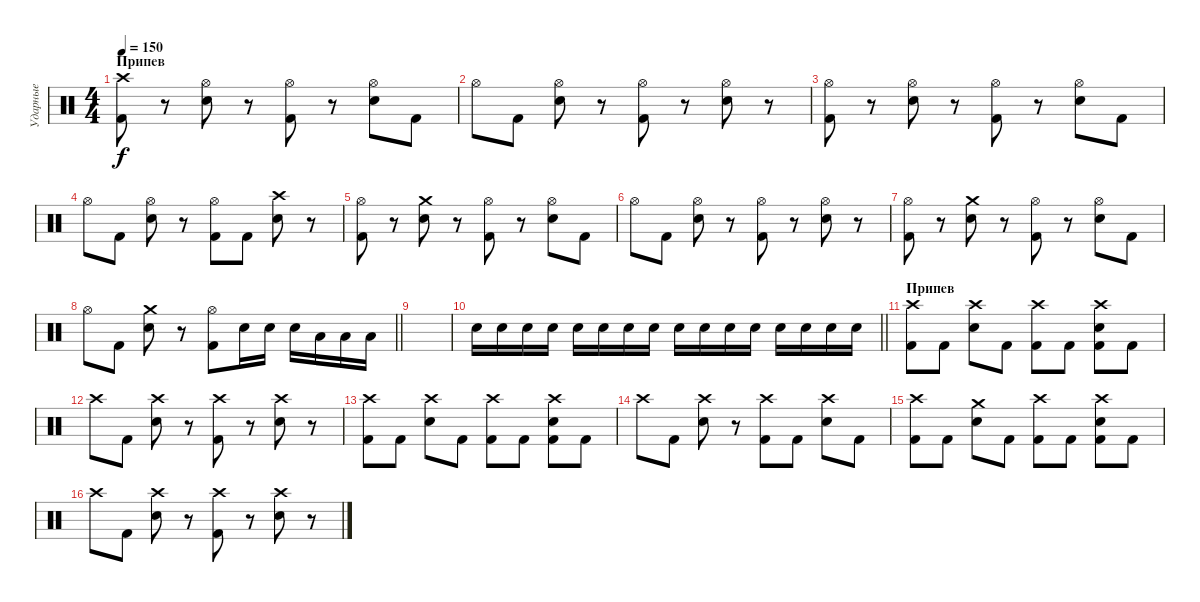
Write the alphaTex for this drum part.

\track ("Ударные" "Ударные") {instrument percussion}
\staff {score}
\articulation defaults
\ts (4 4)
\section ("" "Припев")
\tempo 150
\clef neutral
\ks c
("Crash high (hit)" "Kick (hit) 2").8{dy f} r.8 ("Hi-Hat (open)" "Snare (hit) 2").8 r.8 ("Hi-Hat (open)" "Kick (hit) 2").8 r.8 ("Hi-Hat (open)" "Snare (hit) 2").8 "Kick (hit) 2".8 |
"Hi-Hat (open)".8 "Kick (hit) 2".8 ("Hi-Hat (open)" "Snare (hit) 2").8 r.8 ("Hi-Hat (open)" "Kick (hit) 2").8 r.8 ("Hi-Hat (open)" "Snare (hit) 2").8 r.8 |
("Hi-Hat (open)" "Kick (hit) 2").8 r.8 ("Hi-Hat (open)" "Snare (hit) 2").8 r.8 ("Hi-Hat (open)" "Kick (hit) 2").8 r.8 ("Hi-Hat (open)" "Snare (hit) 2").8 "Kick (hit) 2".8 |
"Hi-Hat (open)".8 "Kick (hit) 2".8 ("Hi-Hat (open)" "Snare (hit) 2").8 r.8 ("Hi-Hat (open)" "Kick (hit) 2").8 "Kick (hit) 2".8 ("Crash high (hit)" "Snare (hit) 2").8 r.8 |
("Hi-Hat (open)" "Kick (hit) 2").8 r.8 ("Crash medium (hit)" "Snare (hit) 2").8 r.8 ("Hi-Hat (open)" "Kick (hit) 2").8 r.8 ("Hi-Hat (open)" "Snare (hit) 2").8 "Kick (hit) 2".8 |
"Hi-Hat (open)".8 "Kick (hit) 2".8 ("Hi-Hat (open)" "Snare (hit) 2").8 r.8 ("Hi-Hat (open)" "Kick (hit) 2").8 r.8 ("Hi-Hat (open)" "Snare (hit) 2").8 r.8 |
("Hi-Hat (open)" "Kick (hit) 2").8 r.8 ("Crash medium (hit)" "Snare (hit) 2").8 r.8 ("Hi-Hat (open)" "Kick (hit) 2").8 r.8 ("Hi-Hat (open)" "Snare (hit) 2").8 "Kick (hit) 2".8 |
\barLineRight lightlight "Hi-Hat (open)".8 "Kick (hit) 2".8
("Crash medium (hit)" "Snare (hit) 2").8 r.8 ("Hi-Hat (open)" "Kick (hit) 2").8 "Snare (hit) 2".16 "Snare (hit) 2".16 "Snare (hit) 2".16 "Low Floor Tom (hit)".16 "Low Floor Tom (hit)".16 "Low Floor Tom (hit)".16 |
|
\barLineRight lightlight "Snare (hit) 2".16 "Snare (hit) 2".16 "Snare (hit) 2".16 "Snare (hit) 2".16 "Snare (hit) 2".16 "Snare (hit) 2".16 "Snare (hit) 2".16 "Snare (hit) 2".16 "Snare (hit) 2".16 "Snare (hit) 2".16 "Snare (hit) 2".16 "Snare (hit) 2".16 "Snare (hit) 2".16 "Snare (hit) 2".16 "Snare (hit) 2".16 "Snare (hit) 2".16
|
\section ("" "Припев")
("Crash high (hit)" "Kick (hit) 2").8 "Kick (hit) 2".8 ("Crash high (hit)" "Snare (hit) 2").8 "Kick (hit) 2".8 ("Crash high (hit)" "Kick (hit) 2").8 "Kick (hit) 2".8 ("Crash high (hit)" "Snare (hit) 2" "Kick (hit) 2").8 "Kick (hit) 2".8 |
"Crash high (hit)".8 "Kick (hit) 2".8 ("Crash high (hit)" "Snare (hit) 2").8 r.8 ("Crash high (hit)" "Kick (hit) 2").8 r.8 ("Crash high (hit)" "Snare (hit) 2").8 r.8 |
("Crash high (hit)" "Kick (hit) 2").8 "Kick (hit) 2".8 ("Crash high (hit)" "Snare (hit) 2").8 "Kick (hit) 2".8 ("Crash high (hit)" "Kick (hit) 2").8 "Kick (hit) 2".8 ("Crash high (hit)" "Snare (hit) 2" "Kick (hit) 2").8 "Kick (hit) 2".8 |
"Crash high (hit)".8 "Kick (hit) 2".8 ("Crash high (hit)" "Snare (hit) 2").8 r.8 ("Crash high (hit)" "Kick (hit) 2").8 "Kick (hit) 2".8 ("Crash high (hit)" "Snare (hit) 2").8 "Kick (hit) 2".8 |
("Crash high (hit)" "Kick (hit) 2").8 "Kick (hit) 2".8 ("Crash medium (hit)" "Snare (hit) 2").8 "Kick (hit) 2".8 ("Crash high (hit)" "Kick (hit) 2").8 "Kick (hit) 2".8 ("Crash high (hit)" "Snare (hit) 2" "Kick (hit) 2").8 "Kick (hit) 2".8 |
"Crash high (hit)".8 "Kick (hit) 2".8 ("Crash high (hit)" "Snare (hit) 2").8 r.8 ("Crash high (hit)" "Kick (hit) 2").8 r.8 ("Crash high (hit)" "Snare (hit) 2").8 r.8
